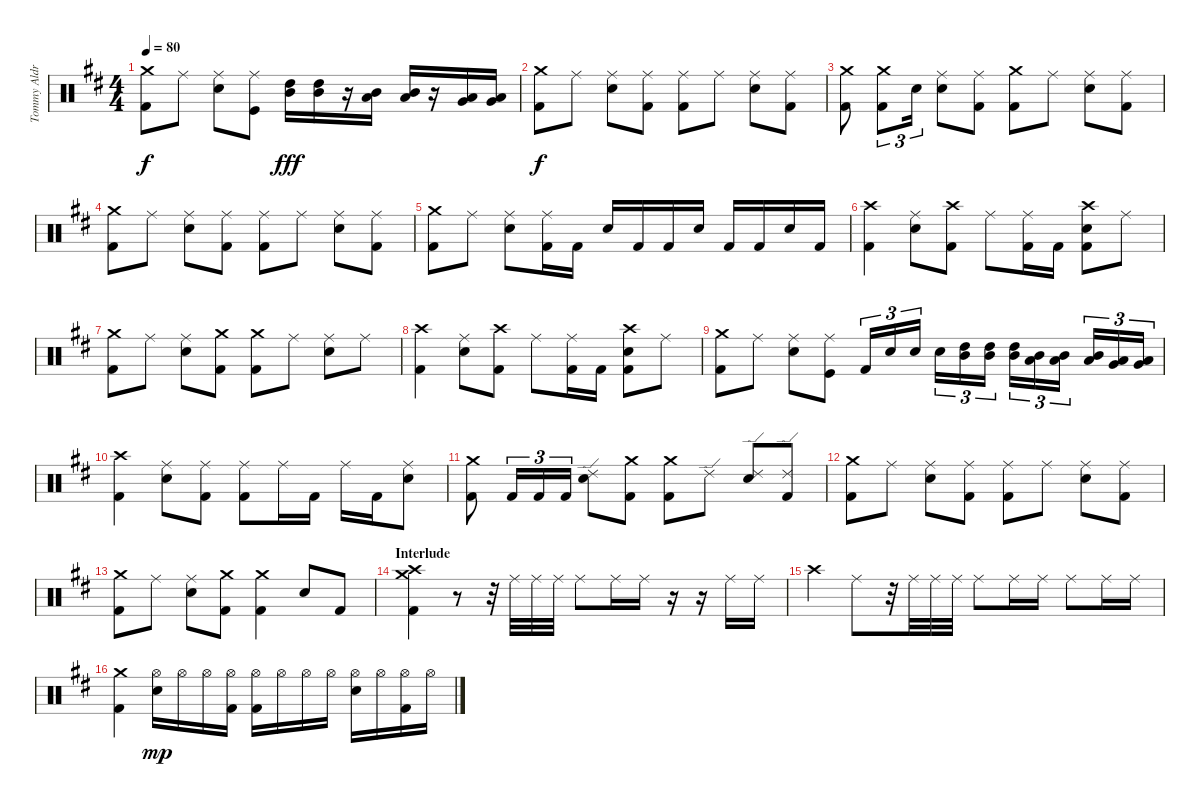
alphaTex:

\track ("Tommy Aldridge" "Tommy Aldr") {instrument percussion}
\staff {score}
\articulation defaults
\ts (4 4)
\tempo 80
\clef neutral
\ks bminor
("Crash medium (hit)" "Kick (hit) 2").8{dy f} "Ride (middle)".8 ("Ride (middle)" "Snare (hit) 2").8 ("Ride (middle)" "Kick (hit)").8 ("High Tom (hit)" "Mid Tom (hit)").16{dy fff} ("High Tom (hit)" "Mid Tom (hit)").16 r.16 ("Mid Tom (hit)" "Low Tom (hit)").16 ("Mid Tom (hit)" "Low Tom (hit)").16 r.16 ("Low Tom (hit)" "Very Low Tom (hit)").16 ("Low Tom (hit)" "Very Low Tom (hit)").16 |
("Crash medium (hit)" "Kick (hit) 2").8{dy f} "Ride (middle)".8 ("Ride (middle)" "Snare (hit) 2").8 ("Ride (middle)" "Kick (hit) 2").8 ("Ride (middle)" "Kick (hit) 2").8 "Ride (middle)".8 ("Ride (middle)" "Snare (hit) 2").8 ("Ride (middle)" "Kick (hit) 2").8 |
("Crash medium (hit)" "Kick (hit) 2").8 ("Crash medium (hit)" "Kick (hit) 2").8{tu (3 2)} "Snare (hit) 2".16{tu (3 2)} ("Ride (middle)" "Snare (hit) 2").8 ("Ride (middle)" "Kick (hit) 2").8 ("Crash medium (hit)" "Kick (hit) 2").8 "Ride (middle)".8 ("Ride (middle)" "Snare (hit) 2").8 ("Ride (middle)" "Kick (hit) 2").8 |
("Crash medium (hit)" "Kick (hit) 2").8 "Ride (middle)".8 ("Ride (middle)" "Snare (hit) 2").8 ("Ride (middle)" "Kick (hit) 2").8 ("Ride (middle)" "Kick (hit) 2").8 "Ride (middle)".8 ("Ride (middle)" "Snare (hit) 2").8 ("Ride (middle)" "Kick (hit) 2").8 |
("Crash medium (hit)" "Kick (hit) 2").8 "Ride (middle)".8 ("Ride (middle)" "Snare (hit) 2").8 ("Ride (middle)" "Kick (hit) 2").16 "Kick (hit) 2".16 "Snare (hit) 2".16 "Kick (hit) 2".16 "Kick (hit) 2".16 "Snare (hit) 2".16 "Kick (hit) 2".16 "Kick (hit) 2".16 "Snare (hit) 2".16 "Kick (hit) 2".16 |
("Crash high (hit)" "Kick (hit) 2").4 ("Ride (middle)" "Snare (hit) 2").8 ("Crash high (hit)" "Kick (hit) 2").8 "Ride (middle)".8 ("Ride (middle)" "Kick (hit) 2").16 "Kick (hit) 2".16 ("Crash high (hit)" "Snare (hit) 2" "Kick (hit) 2").8 "Ride (middle)".8 |
("Crash medium (hit)" "Kick (hit) 2").8 "Ride (middle)".8 ("Ride (middle)" "Snare (hit) 2").8 ("Crash medium (hit)" "Kick (hit) 2").8 ("Crash medium (hit)" "Kick (hit) 2").8 "Ride (middle)".8 ("Ride (middle)" "Snare (hit) 2").8 "Ride (middle)".8 |
("Crash high (hit)" "Kick (hit) 2").4 ("Ride (middle)" "Snare (hit) 2").8 ("Crash high (hit)" "Kick (hit) 2").8 "Ride (middle)".8 ("Ride (middle)" "Kick (hit) 2").16 "Kick (hit) 2".16 ("Crash high (hit)" "Snare (hit) 2" "Kick (hit) 2").8 "Ride (middle)".8 |
("Crash medium (hit)" "Kick (hit) 2").8 "Ride (middle)".8 ("Ride (middle)" "Snare (hit) 2").8 ("Ride (middle)" "Kick (hit)").8 "Kick (hit) 2".16{tu (3 2)} "Snare (hit) 2".16{tu (3 2)} "Snare (hit) 2".16{tu (3 2)} "Snare (hit) 2".16{tu (3 2)} ("Mid Tom (hit)" "High Tom (hit)").16{tu (3 2)} ("Mid Tom (hit)" "High Tom (hit)").16{tu (3 2)} ("Mid Tom (hit)" "High Tom (hit)").16{tu (3 2)} ("Low Tom (hit)" "Mid Tom (hit)").16{tu (3 2)} ("Low Tom (hit)" "Mid Tom (hit)").16{tu (3 2)} ("Low Tom (hit)" "Mid Tom (hit)").16{tu (3 2)} ("Very Low Tom (hit)" "Low Tom (hit)").16{tu (3 2)} ("Very Low Tom (hit)" "Low Tom (hit)").16{tu (3 2)} |
("Crash high (hit)" "Kick (hit) 2").4 ("Ride (middle)" "Snare (hit) 2").8 ("Ride (middle)" "Kick (hit) 2").8 ("Ride (middle)" "Kick (hit) 2").8 "Ride (middle)".16 "Kick (hit) 2".16 "Ride (middle)".16 "Kick (hit) 2".16 ("Ride (middle)" "Snare (hit) 2").8 |
("Crash medium (hit)" "Kick (hit) 2").8 "Kick (hit) 2".16{tu (3 2)} "Kick (hit) 2".16{tu (3 2)} "Kick (hit) 2".16{tu (3 2)} ("Ride (edge) 2" "Snare (hit) 2").8 ("Crash medium (hit)" "Kick (hit) 2").8 ("Crash medium (hit)" "Kick (hit) 2").8 "Ride (edge) 2".8 ("Ride (edge) 2" "Snare (hit) 2").8 ("Ride (edge) 2" "Kick (hit) 2").8 |
("Crash medium (hit)" "Kick (hit) 2").8 "Ride (middle)".8 ("Ride (middle)" "Snare (hit) 2").8 ("Ride (middle)" "Kick (hit) 2").8 ("Ride (middle)" "Kick (hit) 2").8 "Ride (middle)".8 ("Ride (middle)" "Snare (hit) 2").8 ("Ride (middle)" "Kick (hit) 2").8 |
("Crash medium (hit)" "Kick (hit) 2").8 "Ride (middle)".8 ("Ride (middle)" "Snare (hit) 2").8 ("Crash medium (hit)" "Kick (hit) 2").8 ("Crash medium (hit)" "Kick (hit) 2").4 "Snare (hit) 2".8 "Kick (hit) 2".8 |
\section ("" "Interlude")
("Crash high (hit)" "Crash medium (hit)" "Kick (hit) 2").4 r.8 r.32 "Ride (middle)".32 "Ride (middle)".32 "Ride (middle)".32 "Ride (middle)".8 "Ride (middle)".16 "Ride (middle)".16 r.16 r.16 "Ride (middle)".16 "Ride (middle)".16 |
"Crash high (hit)".4 "Ride (middle)".8 r.32 "Ride (middle)".32 "Ride (middle)".32 "Ride (middle)".32 "Ride (middle)".8 "Ride (middle)".16 "Ride (middle)".16 "Ride (middle)".8 "Ride (middle)".16 "Ride (middle)".16 |
("Crash medium (hit)" "Kick (hit) 2").4 ("Hi-Hat (open)" "Snare (hit) 2").16{dy mp} "Hi-Hat (open)".16 "Hi-Hat (open)".16 ("Hi-Hat (open)" "Kick (hit) 2").16 ("Hi-Hat (open)" "Kick (hit) 2").16 "Hi-Hat (open)".16 "Hi-Hat (open)".16 "Hi-Hat (open)".16 ("Hi-Hat (open)" "Snare (hit) 2").16 "Hi-Hat (open)".16 ("Hi-Hat (open)" "Kick (hit) 2").16 "Hi-Hat (open)".16
